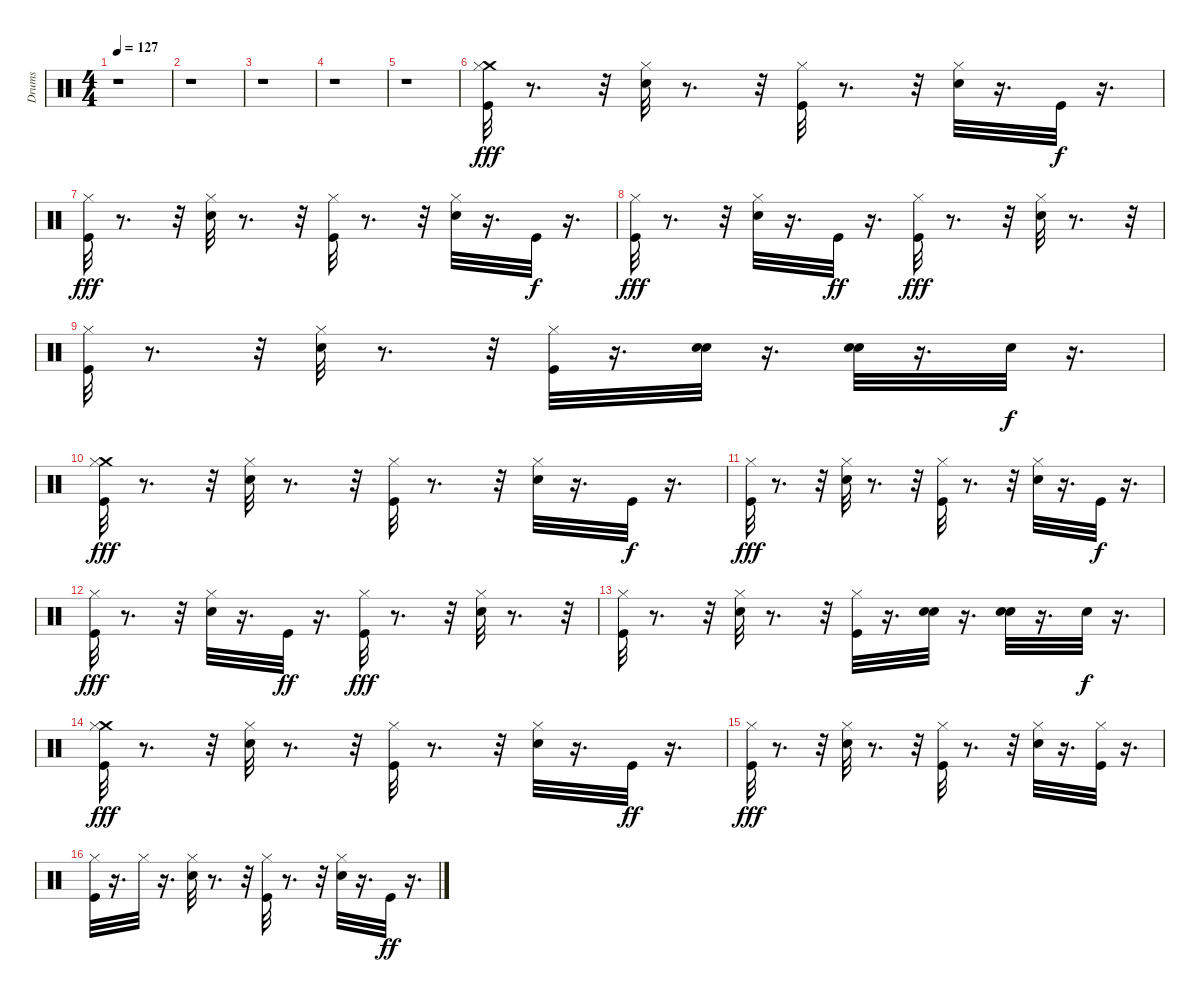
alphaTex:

\track (" Drums" " Drums") {instrument percussion}
\staff {score}
\articulation defaults
\ts (4 4)
\tempo 127
\clef neutral
\ks c
r.1{dy fff} |
r.1 |
r.1 |
r.1 |
r.1 |
("Crash medium (hit)" "Kick (hit)" "Hi-Hat (closed)").32{balance 8} r.8{d} r.32 ("Electric Snare (hit)" "Hi-Hat (closed)").32 r.8{d} r.32 ("Kick (hit)" "Hi-Hat (closed)").32 r.8{d} r.32 ("Electric Snare (hit)" "Hi-Hat (closed)").32 r.16{d} "Kick (hit)".32{dy f} r.16{d} |
("Kick (hit)" "Hi-Hat (closed)").32{dy fff} r.8{d} r.32 ("Electric Snare (hit)" "Hi-Hat (closed)").32 r.8{d} r.32 ("Kick (hit)" "Hi-Hat (closed)").32 r.8{d} r.32 ("Electric Snare (hit)" "Hi-Hat (closed)").32 r.16{d} "Kick (hit)".32{dy f} r.16{d} |
("Kick (hit)" "Hi-Hat (closed)").32{dy fff} r.8{d} r.32 ("Electric Snare (hit)" "Hi-Hat (closed)").32 r.16{d} "Kick (hit)".32{dy ff} r.16{d} ("Kick (hit)" "Hi-Hat (closed)").32{dy fff} r.8{d} r.32 ("Hi-Hat (closed)" "Electric Snare (hit)").32 r.8{d} r.32 |
("Kick (hit)" "Hi-Hat (closed)").32 r.8{d} r.32 ("Hi-Hat (closed)" "Electric Snare (hit)").32 r.8{d} r.32 ("Kick (hit)" "Hi-Hat (closed)").32 r.16{d} ("Electric Snare (hit)" "Snare (hit) 2").32 r.16{d} ("Electric Snare (hit)" "Snare (hit) 2").32 r.16{d} "Electric Snare (hit)".32{dy f} r.16{d} |
("Crash medium (hit)" "Kick (hit)" "Hi-Hat (closed)").32{dy fff} r.8{d} r.32 ("Electric Snare (hit)" "Hi-Hat (closed)").32 r.8{d} r.32 ("Kick (hit)" "Hi-Hat (closed)").32 r.8{d} r.32 ("Electric Snare (hit)" "Hi-Hat (closed)").32 r.16{d} "Kick (hit)".32{dy f} r.16{d} |
("Kick (hit)" "Hi-Hat (closed)").32{dy fff} r.8{d} r.32 ("Electric Snare (hit)" "Hi-Hat (closed)").32 r.8{d} r.32 ("Kick (hit)" "Hi-Hat (closed)").32 r.8{d} r.32 ("Electric Snare (hit)" "Hi-Hat (closed)").32 r.16{d} "Kick (hit)".32{dy f} r.16{d} |
("Kick (hit)" "Hi-Hat (closed)").32{dy fff} r.8{d} r.32 ("Electric Snare (hit)" "Hi-Hat (closed)").32 r.16{d} "Kick (hit)".32{dy ff} r.16{d} ("Kick (hit)" "Hi-Hat (closed)").32{dy fff} r.8{d} r.32 ("Hi-Hat (closed)" "Electric Snare (hit)").32 r.8{d} r.32 |
("Kick (hit)" "Hi-Hat (closed)").32 r.8{d} r.32 ("Hi-Hat (closed)" "Electric Snare (hit)").32 r.8{d} r.32 ("Kick (hit)" "Hi-Hat (closed)").32 r.16{d} ("Electric Snare (hit)" "Snare (hit) 2").32 r.16{d} ("Electric Snare (hit)" "Snare (hit) 2").32 r.16{d} "Snare (hit) 2".32{dy f} r.16{d} |
("Crash medium (hit)" "Kick (hit)" "Hi-Hat (closed)").32{dy fff} r.8{d} r.32 ("Electric Snare (hit)" "Hi-Hat (closed)").32 r.8{d} r.32 ("Kick (hit)" "Hi-Hat (closed)").32 r.8{d} r.32 ("Electric Snare (hit)" "Hi-Hat (closed)").32 r.16{d} "Kick (hit)".32{dy ff} r.16{d} |
("Kick (hit)" "Hi-Hat (closed)").32{dy fff} r.8{d} r.32 ("Electric Snare (hit)" "Hi-Hat (closed)").32 r.8{d} r.32 ("Kick (hit)" "Hi-Hat (closed)").32 r.8{d} r.32 ("Electric Snare (hit)" "Hi-Hat (closed)").32 r.16{d} ("Kick (hit)" "Hi-Hat (closed)").32 r.16{d} |
("Kick (hit)" "Hi-Hat (closed)").32 r.16{d} "Hi-Hat (closed)".32 r.16{d} ("Electric Snare (hit)" "Hi-Hat (closed)").32 r.8{d} r.32 ("Kick (hit)" "Hi-Hat (closed)").32 r.8{d} r.32 ("Electric Snare (hit)" "Hi-Hat (closed)").32 r.16{d} "Kick (hit)".32{dy ff} r.16{d}
